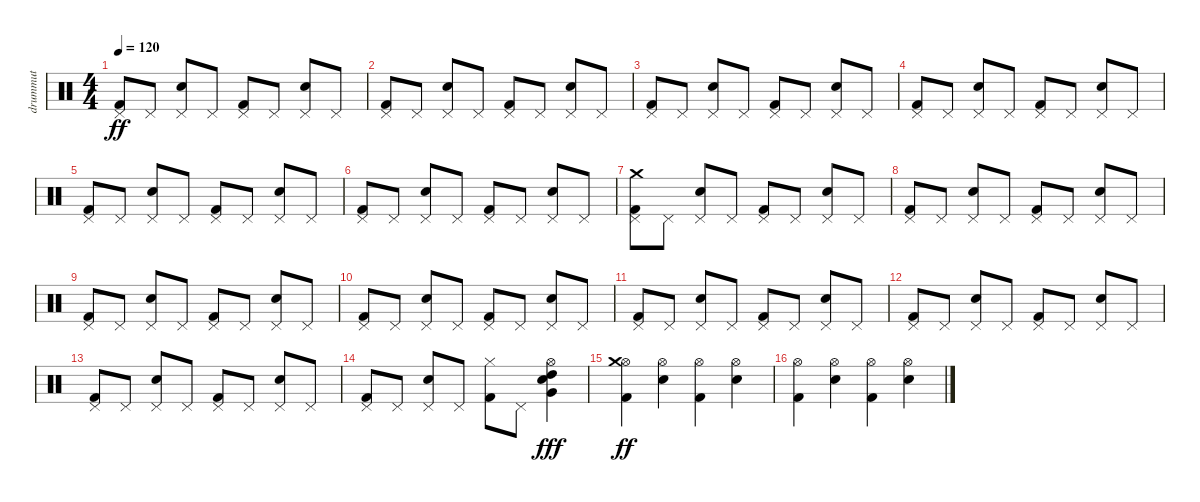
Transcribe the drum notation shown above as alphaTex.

\track ("drummut" "drummut") {instrument percussion}
\staff {score}
\articulation defaults
\ts (4 4)
\tempo 120
\clef neutral
\ks c
("Kick (hit) 2" "Pedal Hi-Hat (hit)").8{dy ff} "Pedal Hi-Hat (hit)".8 ("Electric Snare (hit)" "Pedal Hi-Hat (hit)").8 "Pedal Hi-Hat (hit)".8 ("Kick (hit) 2" "Pedal Hi-Hat (hit)").8 "Pedal Hi-Hat (hit)".8 ("Electric Snare (hit)" "Pedal Hi-Hat (hit)").8 "Pedal Hi-Hat (hit)".8 |
("Kick (hit) 2" "Pedal Hi-Hat (hit)").8 "Pedal Hi-Hat (hit)".8 ("Electric Snare (hit)" "Pedal Hi-Hat (hit)").8 "Pedal Hi-Hat (hit)".8 ("Kick (hit) 2" "Pedal Hi-Hat (hit)").8 "Pedal Hi-Hat (hit)".8 ("Electric Snare (hit)" "Pedal Hi-Hat (hit)").8 "Pedal Hi-Hat (hit)".8 |
("Kick (hit) 2" "Pedal Hi-Hat (hit)").8 "Pedal Hi-Hat (hit)".8 ("Electric Snare (hit)" "Pedal Hi-Hat (hit)").8 "Pedal Hi-Hat (hit)".8 ("Kick (hit) 2" "Pedal Hi-Hat (hit)").8 "Pedal Hi-Hat (hit)".8 ("Electric Snare (hit)" "Pedal Hi-Hat (hit)").8 "Pedal Hi-Hat (hit)".8 |
("Kick (hit) 2" "Pedal Hi-Hat (hit)").8 "Pedal Hi-Hat (hit)".8 ("Electric Snare (hit)" "Pedal Hi-Hat (hit)").8 "Pedal Hi-Hat (hit)".8 ("Kick (hit) 2" "Pedal Hi-Hat (hit)").8 "Pedal Hi-Hat (hit)".8 ("Electric Snare (hit)" "Pedal Hi-Hat (hit)").8 "Pedal Hi-Hat (hit)".8 |
("Kick (hit) 2" "Pedal Hi-Hat (hit)").8 "Pedal Hi-Hat (hit)".8 ("Electric Snare (hit)" "Pedal Hi-Hat (hit)").8 "Pedal Hi-Hat (hit)".8 ("Kick (hit) 2" "Pedal Hi-Hat (hit)").8 "Pedal Hi-Hat (hit)".8 ("Electric Snare (hit)" "Pedal Hi-Hat (hit)").8 "Pedal Hi-Hat (hit)".8 |
("Kick (hit) 2" "Pedal Hi-Hat (hit)").8 "Pedal Hi-Hat (hit)".8 ("Electric Snare (hit)" "Pedal Hi-Hat (hit)").8 "Pedal Hi-Hat (hit)".8 ("Kick (hit) 2" "Pedal Hi-Hat (hit)").8 "Pedal Hi-Hat (hit)".8 ("Electric Snare (hit)" "Pedal Hi-Hat (hit)").8 "Pedal Hi-Hat (hit)".8 |
("Kick (hit) 2" "Pedal Hi-Hat (hit)" "Crash medium (hit)").8 "Pedal Hi-Hat (hit)".8 ("Electric Snare (hit)" "Pedal Hi-Hat (hit)").8 "Pedal Hi-Hat (hit)".8 ("Kick (hit) 2" "Pedal Hi-Hat (hit)").8 "Pedal Hi-Hat (hit)".8 ("Electric Snare (hit)" "Pedal Hi-Hat (hit)").8 "Pedal Hi-Hat (hit)".8 |
("Kick (hit) 2" "Pedal Hi-Hat (hit)").8 "Pedal Hi-Hat (hit)".8 ("Electric Snare (hit)" "Pedal Hi-Hat (hit)").8 "Pedal Hi-Hat (hit)".8 ("Kick (hit) 2" "Pedal Hi-Hat (hit)").8 "Pedal Hi-Hat (hit)".8 ("Electric Snare (hit)" "Pedal Hi-Hat (hit)").8 "Pedal Hi-Hat (hit)".8 |
("Kick (hit) 2" "Pedal Hi-Hat (hit)").8 "Pedal Hi-Hat (hit)".8 ("Electric Snare (hit)" "Pedal Hi-Hat (hit)").8 "Pedal Hi-Hat (hit)".8 ("Kick (hit) 2" "Pedal Hi-Hat (hit)").8 "Pedal Hi-Hat (hit)".8 ("Electric Snare (hit)" "Pedal Hi-Hat (hit)").8 "Pedal Hi-Hat (hit)".8 |
("Kick (hit) 2" "Pedal Hi-Hat (hit)").8 "Pedal Hi-Hat (hit)".8 ("Electric Snare (hit)" "Pedal Hi-Hat (hit)").8 "Pedal Hi-Hat (hit)".8 ("Kick (hit) 2" "Pedal Hi-Hat (hit)").8 "Pedal Hi-Hat (hit)".8 ("Electric Snare (hit)" "Pedal Hi-Hat (hit)").8 "Pedal Hi-Hat (hit)".8 |
("Kick (hit) 2" "Pedal Hi-Hat (hit)").8 "Pedal Hi-Hat (hit)".8 ("Electric Snare (hit)" "Pedal Hi-Hat (hit)").8 "Pedal Hi-Hat (hit)".8 ("Kick (hit) 2" "Pedal Hi-Hat (hit)").8 "Pedal Hi-Hat (hit)".8 ("Electric Snare (hit)" "Pedal Hi-Hat (hit)").8 "Pedal Hi-Hat (hit)".8 |
("Kick (hit) 2" "Pedal Hi-Hat (hit)").8 "Pedal Hi-Hat (hit)".8 ("Electric Snare (hit)" "Pedal Hi-Hat (hit)").8 "Pedal Hi-Hat (hit)".8 ("Kick (hit) 2" "Pedal Hi-Hat (hit)").8 "Pedal Hi-Hat (hit)".8 ("Electric Snare (hit)" "Pedal Hi-Hat (hit)").8 "Pedal Hi-Hat (hit)".8 |
("Kick (hit) 2" "Pedal Hi-Hat (hit)").8 "Pedal Hi-Hat (hit)".8 ("Electric Snare (hit)" "Pedal Hi-Hat (hit)").8 "Pedal Hi-Hat (hit)".8 ("Kick (hit) 2" "Pedal Hi-Hat (hit)").8 "Pedal Hi-Hat (hit)".8 ("Electric Snare (hit)" "Pedal Hi-Hat (hit)").8 "Pedal Hi-Hat (hit)".8 |
("Kick (hit) 2" "Pedal Hi-Hat (hit)").8 "Pedal Hi-Hat (hit)".8 ("Electric Snare (hit)" "Pedal Hi-Hat (hit)").8 "Pedal Hi-Hat (hit)".8 ("Kick (hit) 2" "Hi-Hat (closed)").8 "Pedal Hi-Hat (hit)".8 ("Electric Snare (hit)" "High Tom (hit)" "Very Low Tom (hit)" "Hi-Hat (open)").4{dy fff} |
("Kick (hit) 2" "Hi-Hat (open)" "Crash medium (hit)").4{dy ff} ("Electric Snare (hit)" "Hi-Hat (open)").4 ("Kick (hit) 2" "Hi-Hat (open)").4 ("Electric Snare (hit)" "Hi-Hat (open)").4 |
("Kick (hit) 2" "Hi-Hat (open)").4 ("Electric Snare (hit)" "Hi-Hat (open)").4 ("Kick (hit) 2" "Hi-Hat (open)").4 ("Electric Snare (hit)" "Hi-Hat (open)").4
